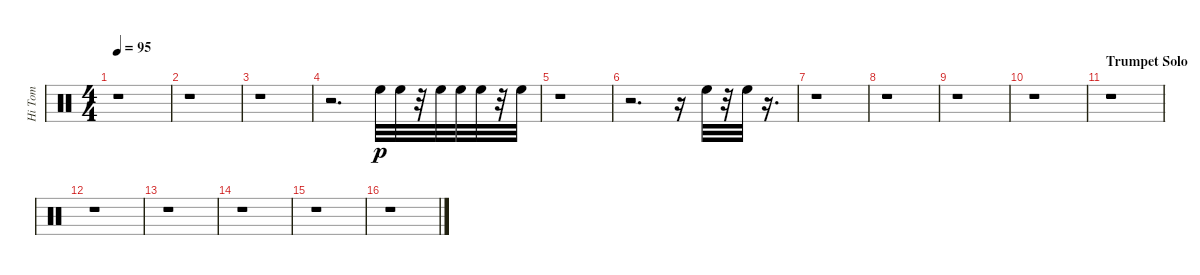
\track ("Hi Tom" "Hi Tom") {instrument percussion}
\staff {score}
\articulation defaults
\ts (4 4)
\tempo 95
\clef neutral
\ks c
r.1{dy p} |
r.1 |
r.1 |
r.2{d} "High Floor Tom (hit)".32 "High Floor Tom (hit)".32 r.32 "High Floor Tom (hit)".32 "High Floor Tom (hit)".32 "High Floor Tom (hit)".32 r.32 "High Floor Tom (hit)".32 |
r.1 |
r.2{d} r.16 "High Floor Tom (hit)".32 r.32 "High Floor Tom (hit)".32 r.16{d} |
r.1 |
r.1 |
r.1 |
r.1 |
\section ("" "Trumpet Solo")
r.1 |
r.1 |
r.1 |
r.1 |
r.1 |
r.1
